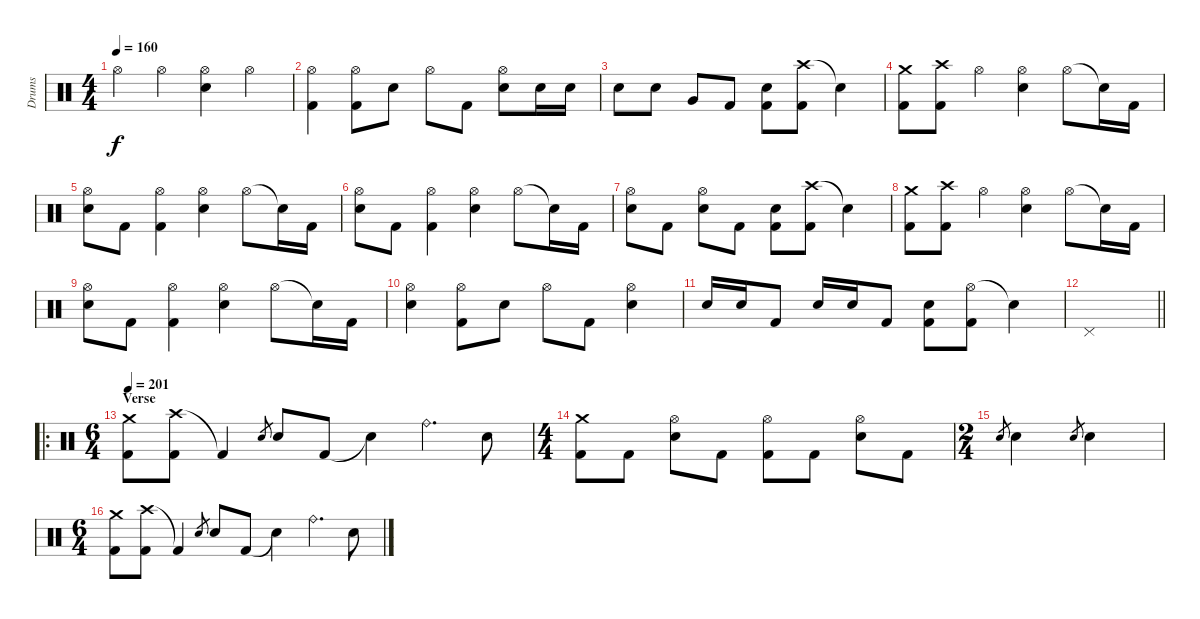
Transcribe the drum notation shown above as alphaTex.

\track ("Drums" "Drums") {instrument percussion}
\staff {score}
\articulation defaults
\ts (4 4)
\tempo 160
\clef neutral
\ks c "Hi-Hat (open)".4{dy f} "Hi-Hat (open)".4
("Hi-Hat (open)" "Electric Snare (hit)").4 "Hi-Hat (open)".4 |
("Hi-Hat (open)" "Kick (hit) 2").4 ("Hi-Hat (open)" "Kick (hit) 2").8 "Electric Snare (hit)".8 "Hi-Hat (open)".8 "Kick (hit) 2".8 ("Hi-Hat (open)" "Electric Snare (hit)").8 "Electric Snare (hit)".16 "Electric Snare (hit)".16 |
"Electric Snare (hit)".8 "Electric Snare (hit)".8 "Very Low Tom (hit)".8 "Kick (hit) 2".8 ("Electric Snare (hit)" "Kick (hit) 2").8 ("Crash high (hit)" "Kick (hit) 2").8 "Snare (hit)"{t}.4 |
("Crash medium (hit)" "Kick (hit) 2").8 ("Crash high (hit)" "Kick (hit) 2").8 "Hi-Hat (open)".4 ("Hi-Hat (open)" "Electric Snare (hit)").4 "Hi-Hat (open)".8 "Snare (hit)"{t}.16 "Kick (hit) 2".16 |
("Hi-Hat (open)" "Electric Snare (hit)").8 "Kick (hit) 2".8 ("Hi-Hat (open)" "Kick (hit) 2").4 ("Hi-Hat (open)" "Electric Snare (hit)").4 "Hi-Hat (open)".8 "Snare (hit)"{t}.16 "Kick (hit) 2".16 |
("Hi-Hat (open)" "Electric Snare (hit)").8 "Kick (hit) 2".8 ("Hi-Hat (open)" "Kick (hit) 2").4 ("Hi-Hat (open)" "Electric Snare (hit)").4 "Hi-Hat (open)".8 "Snare (hit)"{t}.16 "Kick (hit) 2".16 |
("Hi-Hat (open)" "Electric Snare (hit)").8 "Kick (hit) 2".8 ("Hi-Hat (open)" "Electric Snare (hit)").8 "Kick (hit) 2".8 ("Electric Snare (hit)" "Kick (hit) 2").8 ("Crash high (hit)" "Kick (hit) 2").8 "Snare (hit)"{t}.4 |
("Crash medium (hit)" "Kick (hit) 2").8 ("Crash high (hit)" "Kick (hit) 2").8 "Hi-Hat (open)".4 ("Hi-Hat (open)" "Electric Snare (hit)").4 "Hi-Hat (open)".8 "Snare (hit)"{t}.16 "Kick (hit) 2".16 |
("Hi-Hat (open)" "Electric Snare (hit)").8 "Kick (hit) 2".8 ("Hi-Hat (open)" "Kick (hit) 2").4 ("Hi-Hat (open)" "Electric Snare (hit)").4 "Hi-Hat (open)".8 "Snare (hit)"{t}.16 "Kick (hit) 2".16 |
("Hi-Hat (open)" "Electric Snare (hit)").4 ("Hi-Hat (open)" "Kick (hit) 2").8 "Electric Snare (hit)".8 "Hi-Hat (open)".8 "Kick (hit) 2".8 ("Hi-Hat (open)" "Electric Snare (hit)").4 |
"Electric Snare (hit)".16 "Electric Snare (hit)".16 "Kick (hit) 2".8 "Electric Snare (hit)".16 "Electric Snare (hit)".16 "Kick (hit) 2".8 ("Electric Snare (hit)" "Kick (hit) 2").8 ("Hi-Hat (open)" "Kick (hit) 2").8 "Snare (hit)"{t}.4 |
\barLineRight lightlight "Pedal Hi-Hat (hit)".1
|
\ro
\ts (6 4)
\section ("" "Verse")
\tempo 201
("Crash medium (hit)" "Kick (hit) 2").8 ("Crash high (hit)" "Kick (hit) 2").8 "Kick (hit) 2"{t}.4 "Electric Snare (hit)".8{gr} "Electric Snare (hit)".8 "Kick (hit) 2".8 "Snare (hit)"{t}.4 "Ride (bell)".4{d} "Electric Snare (hit)".8 |
\ts (4 4)
("Crash medium (hit)" "Kick (hit) 2").8 "Kick (hit) 2".8 ("Hi-Hat (open)" "Electric Snare (hit)").8 "Kick (hit) 2".8 ("Hi-Hat (open)" "Kick (hit) 2").8 "Kick (hit) 2".8 ("Hi-Hat (open)" "Electric Snare (hit)").8 "Kick (hit) 2".8 |
\ts (2 4)
"Electric Snare (hit)".8{gr} "Electric Snare (hit)".4 "Electric Snare (hit)".8{gr} "Electric Snare (hit)".4 |
\ts (6 4)
("Crash medium (hit)" "Kick (hit) 2").8 ("Crash high (hit)" "Kick (hit) 2").8 "Kick (hit) 2"{t}.4 "Electric Snare (hit)".8{gr} "Electric Snare (hit)".8 "Kick (hit) 2".8 "Snare (hit)"{t}.4 "Ride (bell)".4{d} "Electric Snare (hit)".8
